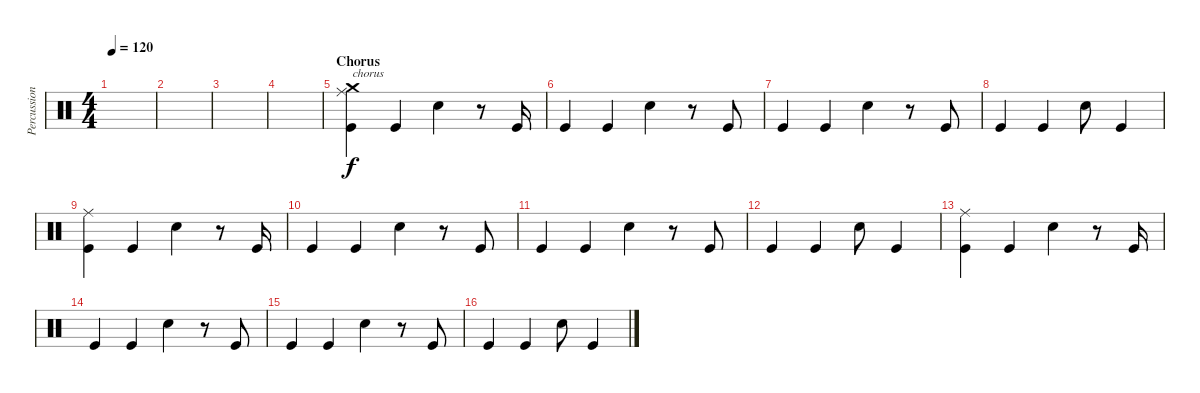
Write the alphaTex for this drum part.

\track ("Percussion" "Percussion") {instrument percussion}
\staff {score}
\articulation defaults
\ts (4 4)
\tempo 120
\clef neutral
\ks c
|
|
|
|
\section ("" "Chorus")
("Kick (hit)" "Ride (middle)" "Crash medium (hit)").4{txt "chorus"} "Kick (hit)".4 "Electric Snare (hit)".4 r.8 "Kick (hit)".16 |
"Kick (hit)".4 "Kick (hit)".4 "Electric Snare (hit)".4 r.8 "Kick (hit)".8 |
"Kick (hit)".4 "Kick (hit)".4 "Electric Snare (hit)".4 r.8 "Kick (hit)".8 |
"Kick (hit)".4 "Kick (hit)".4 "Electric Snare (hit)".8 "Kick (hit)".4 |
("Kick (hit)" "Ride (middle)").4 "Kick (hit)".4 "Electric Snare (hit)".4 r.8 "Kick (hit)".16 |
"Kick (hit)".4 "Kick (hit)".4 "Electric Snare (hit)".4 r.8 "Kick (hit)".8 |
"Kick (hit)".4 "Kick (hit)".4 "Electric Snare (hit)".4 r.8 "Kick (hit)".8 |
"Kick (hit)".4 "Kick (hit)".4 "Electric Snare (hit)".8 "Kick (hit)".4 |
("Kick (hit)" "Ride (middle)").4 "Kick (hit)".4 "Electric Snare (hit)".4 r.8 "Kick (hit)".16 |
"Kick (hit)".4 "Kick (hit)".4 "Electric Snare (hit)".4 r.8 "Kick (hit)".8 |
"Kick (hit)".4 "Kick (hit)".4 "Electric Snare (hit)".4 r.8 "Kick (hit)".8 |
"Kick (hit)".4 "Kick (hit)".4 "Electric Snare (hit)".8 "Kick (hit)".4
